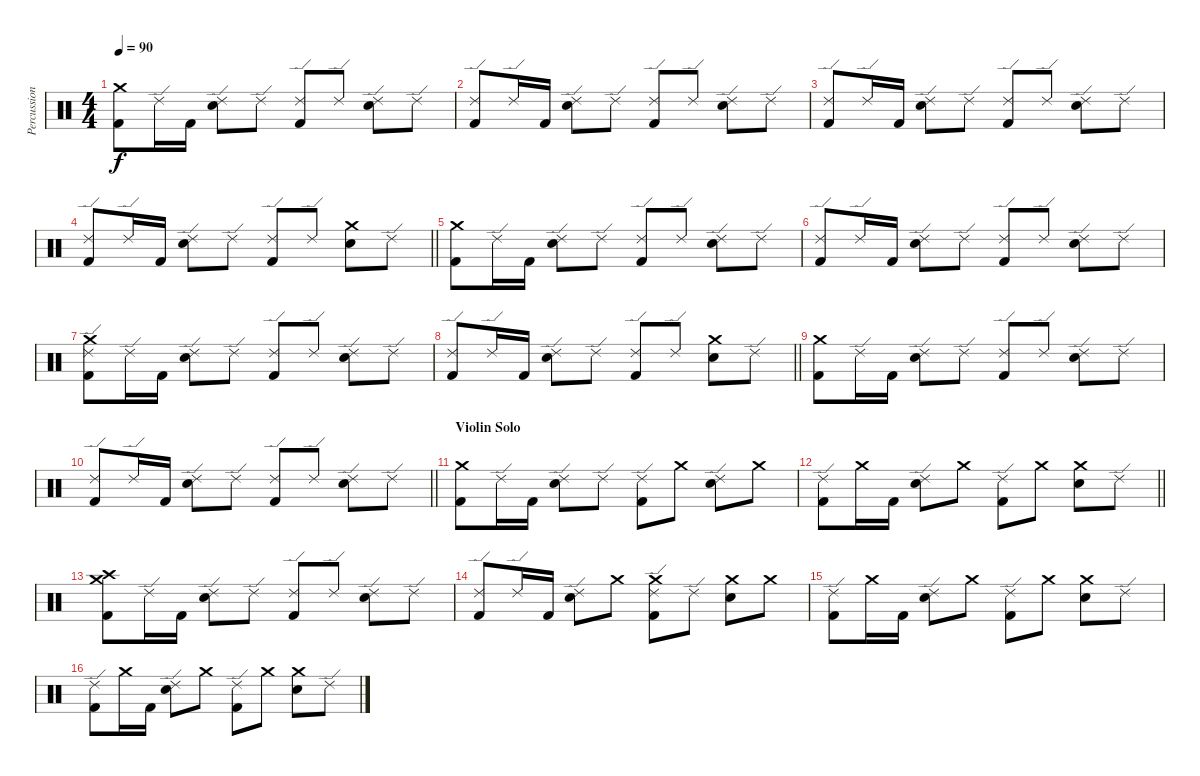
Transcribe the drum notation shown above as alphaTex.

\track ("Percussion" "Percussion") {instrument percussion}
\staff {score}
\articulation defaults
\ts (4 4)
\tempo 90
\clef neutral
\ks c
("Crash medium (hit)" "Kick (hit) 2").8{dy f} "Ride (edge) 2".16 "Kick (hit) 2".16 ("Ride (edge) 2" "Electric Snare (hit)").8 "Ride (edge) 2".8 ("Ride (edge) 2" "Kick (hit) 2").8 "Ride (edge) 2".8 ("Ride (edge) 2" "Electric Snare (hit)").8 "Ride (edge) 2".8 |
("Ride (edge) 2" "Kick (hit) 2").8 "Ride (edge) 2".16 "Kick (hit) 2".16 ("Ride (edge) 2" "Electric Snare (hit)").8 "Ride (edge) 2".8 ("Ride (edge) 2" "Kick (hit) 2").8 "Ride (edge) 2".8 ("Ride (edge) 2" "Electric Snare (hit)").8 "Ride (edge) 2".8 |
("Ride (edge) 2" "Kick (hit) 2").8 "Ride (edge) 2".16 "Kick (hit) 2".16 ("Ride (edge) 2" "Electric Snare (hit)").8 "Ride (edge) 2".8 ("Ride (edge) 2" "Kick (hit) 2").8 "Ride (edge) 2".8 ("Ride (edge) 2" "Electric Snare (hit)").8 "Ride (edge) 2".8 |
\barLineRight lightlight
("Ride (edge) 2" "Kick (hit) 2").8 "Ride (edge) 2".16 "Kick (hit) 2".16 ("Ride (edge) 2" "Electric Snare (hit)").8 "Ride (edge) 2".8 ("Ride (edge) 2" "Kick (hit) 2").8 "Ride (edge) 2".8 ("Crash medium (hit)" "Electric Snare (hit)").8 "Ride (edge) 2".8 |
("Crash medium (hit)" "Kick (hit) 2").8 "Ride (edge) 2".16 "Kick (hit) 2".16 ("Ride (edge) 2" "Electric Snare (hit)").8 "Ride (edge) 2".8 ("Ride (edge) 2" "Kick (hit) 2").8 "Ride (edge) 2".8 ("Ride (edge) 2" "Electric Snare (hit)").8 "Ride (edge) 2".8 |
("Ride (edge) 2" "Kick (hit) 2").8 "Ride (edge) 2".16 "Kick (hit) 2".16 ("Ride (edge) 2" "Electric Snare (hit)").8 "Ride (edge) 2".8 ("Ride (edge) 2" "Kick (hit) 2").8 "Ride (edge) 2".8 ("Ride (edge) 2" "Electric Snare (hit)").8 "Ride (edge) 2".8 |
("Ride (edge) 2" "Crash medium (hit)" "Kick (hit) 2").8 "Ride (edge) 2".16 "Kick (hit) 2".16 ("Ride (edge) 2" "Electric Snare (hit)").8 "Ride (edge) 2".8 ("Ride (edge) 2" "Kick (hit) 2").8 "Ride (edge) 2".8 ("Ride (edge) 2" "Electric Snare (hit)").8 "Ride (edge) 2".8 |
\barLineRight lightlight
("Ride (edge) 2" "Kick (hit) 2").8 "Ride (edge) 2".16 "Kick (hit) 2".16 ("Ride (edge) 2" "Electric Snare (hit)").8 "Ride (edge) 2".8 ("Ride (edge) 2" "Kick (hit) 2").8 "Ride (edge) 2".8 ("Crash medium (hit)" "Electric Snare (hit)").8 "Ride (edge) 2".8 |
("Crash medium (hit)" "Kick (hit) 2").8 "Ride (edge) 2".16 "Kick (hit) 2".16 ("Ride (edge) 2" "Electric Snare (hit)").8 "Ride (edge) 2".8 ("Ride (edge) 2" "Kick (hit) 2").8 "Ride (edge) 2".8 ("Ride (edge) 2" "Electric Snare (hit)").8 "Ride (edge) 2".8 |
\barLineRight lightlight
("Ride (edge) 2" "Kick (hit) 2").8 "Ride (edge) 2".16 "Kick (hit) 2".16 ("Ride (edge) 2" "Electric Snare (hit)").8 "Ride (edge) 2".8 ("Ride (edge) 2" "Kick (hit) 2").8 "Ride (edge) 2".8 ("Ride (edge) 2" "Electric Snare (hit)").8 "Ride (edge) 2".8 |
\section ("" "Violin Solo")
("Crash medium (hit)" "Kick (hit) 2").8 "Ride (edge) 2".16 "Kick (hit) 2".16 ("Ride (edge) 2" "Electric Snare (hit)").8 "Ride (edge) 2".8 ("Ride (edge) 2" "Kick (hit) 2").8 "Crash medium (hit)".8 ("Ride (edge) 2" "Electric Snare (hit)").8 "Crash medium (hit)".8 |
\barLineRight lightlight
("Ride (edge) 2" "Kick (hit) 2").8 "Crash medium (hit)".16 "Kick (hit) 2".16 ("Ride (edge) 2" "Electric Snare (hit)").8 "Crash medium (hit)".8 ("Ride (edge) 2" "Kick (hit) 2").8 "Crash medium (hit)".8 ("Crash medium (hit)" "Electric Snare (hit)").8 "Ride (edge) 2".8 |
("Crash medium (hit)" "Crash high (hit)" "Kick (hit) 2").8 "Ride (edge) 2".16 "Kick (hit) 2".16 ("Ride (edge) 2" "Electric Snare (hit)").8 "Ride (edge) 2".8 ("Ride (edge) 2" "Kick (hit) 2").8 "Ride (edge) 2".8 ("Ride (edge) 2" "Electric Snare (hit)").8 "Ride (edge) 2".8 |
("Ride (edge) 2" "Kick (hit) 2").8 "Ride (edge) 2".16 "Kick (hit) 2".16 ("Ride (edge) 2" "Electric Snare (hit)").8 "Crash medium (hit)".8 ("Ride (edge) 2" "Crash medium (hit)" "Kick (hit) 2").8 "Ride (edge) 2".8 ("Crash medium (hit)" "Electric Snare (hit)").8 "Crash medium (hit)".8 |
("Ride (edge) 2" "Kick (hit) 2").8 "Crash medium (hit)".16 "Kick (hit) 2".16 ("Ride (edge) 2" "Electric Snare (hit)").8 "Crash medium (hit)".8 ("Ride (edge) 2" "Kick (hit) 2").8 "Crash medium (hit)".8 ("Crash medium (hit)" "Electric Snare (hit)").8 "Ride (edge) 2".8 |
("Ride (edge) 2" "Kick (hit) 2").8 "Crash medium (hit)".16 "Kick (hit) 2".16 ("Ride (edge) 2" "Electric Snare (hit)").8 "Crash medium (hit)".8 ("Ride (edge) 2" "Kick (hit) 2").8 "Crash medium (hit)".8 ("Crash medium (hit)" "Electric Snare (hit)").8 "Ride (edge) 2".8
